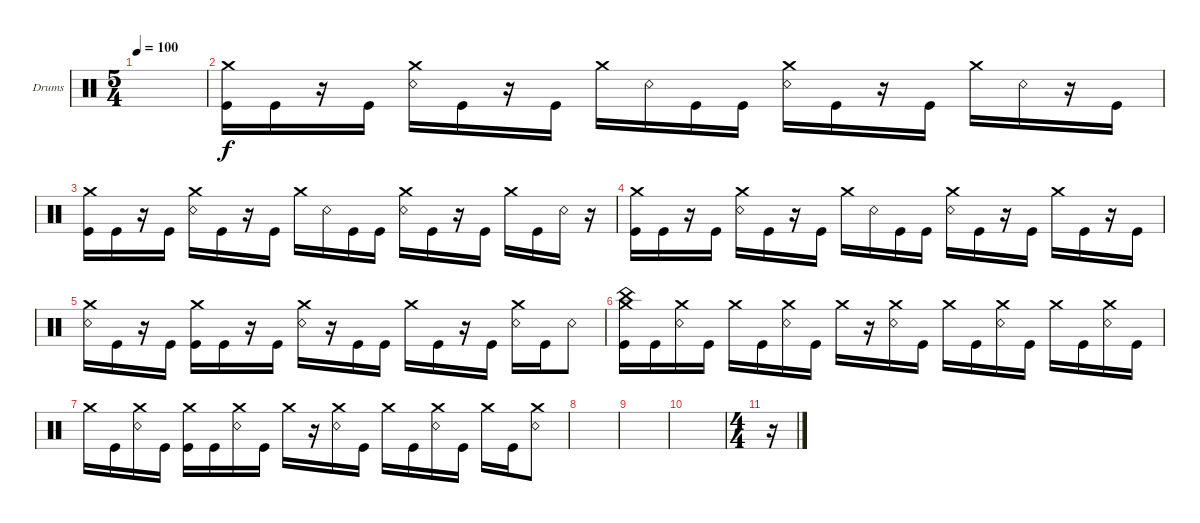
\defaultSystemsLayout 4
\bracketExtendMode groupsimilarinstruments
\firstSystemTrackNameOrientation horizontal
\otherSystemsTrackNameOrientation horizontal
\track ("Drumkit" "Drums") {instrument percussion}
\staff {score}
\articulation defaults
\ts (5 4)
\tempo 100
\clef neutral
\ks c
|
("Kick (hit)" "Crash medium (hit)").16 "Kick (hit)".16 r.16 "Kick (hit)".16 ("Snare (rim shot)" "Crash medium (hit)").16 "Kick (hit)".16 r.16 "Kick (hit)".16 "Crash medium (hit)".16 "Snare (rim shot)".16 "Kick (hit)".16 "Kick (hit)".16 ("Snare (rim shot)" "Crash medium (hit)").16 "Kick (hit)".16 r.16 "Kick (hit)".16 "Crash medium (hit)".16 "Snare (rim shot)".16 r.16 "Kick (hit)".16 |
("Kick (hit)" "Crash medium (hit)").16 "Kick (hit)".16 r.16 "Kick (hit)".16 ("Snare (rim shot)" "Crash medium (hit)").16 "Kick (hit)".16 r.16 "Kick (hit)".16 "Crash medium (hit)".16 "Snare (rim shot)".16 "Kick (hit)".16 "Kick (hit)".16 ("Snare (rim shot)" "Crash medium (hit)").16 "Kick (hit)".16 r.16 "Kick (hit)".16 "Crash medium (hit)".16 "Kick (hit)".16 "Snare (rim shot)".16 r.16 |
("Kick (hit)" "Crash medium (hit)").16 "Kick (hit)".16 r.16 "Kick (hit)".16 ("Snare (rim shot)" "Crash medium (hit)").16 "Kick (hit)".16 r.16 "Kick (hit)".16 "Crash medium (hit)".16 "Snare (rim shot)".16 "Kick (hit)".16 "Kick (hit)".16 ("Snare (rim shot)" "Crash medium (hit)").16 "Kick (hit)".16 r.16 "Kick (hit)".16 "Crash medium (hit)".16 "Kick (hit)".16 r.16 "Kick (hit)".16 |
("Crash medium (hit)" "Snare (rim shot)").16 "Kick (hit)".16 r.16 "Kick (hit)".16 ("Crash medium (hit)" "Kick (hit)").16 "Kick (hit)".16 r.16 "Kick (hit)".16 ("Crash medium (hit)" "Snare (rim shot)").16 r.16 "Kick (hit)".16 "Kick (hit)".16 "Crash medium (hit)".16 "Kick (hit)".16 r.16 "Kick (hit)".16 ("Crash medium (hit)" "Snare (rim shot)").16 "Kick (hit)".16 "Snare (rim shot)".8 |
("Kick (hit)" "Crash medium (hit)" "China (hit)").16 "Kick (hit)".16 ("Crash medium (hit)" "Snare (rim shot)").16 "Kick (hit)".16 "Crash medium (hit)".16 "Kick (hit)".16 ("Crash medium (hit)" "Snare (rim shot)").16 "Kick (hit)".16 "Crash medium (hit)".16 r.16 ("Crash medium (hit)" "Snare (rim shot)").16 "Kick (hit)".16 "Crash medium (hit)".16 "Kick (hit)".16 ("Crash medium (hit)" "Snare (rim shot)").16 "Kick (hit)".16 "Crash medium (hit)".16 "Kick (hit)".16 ("Crash medium (hit)" "Snare (rim shot)").16 "Kick (hit)".16 |
"Crash medium (hit)".16 "Kick (hit)".16 ("Crash medium (hit)" "Snare (rim shot)").16 "Kick (hit)".16 ("Crash medium (hit)" "Kick (hit)").16 "Kick (hit)".16 ("Crash medium (hit)" "Snare (rim shot)").16 "Kick (hit)".16 "Crash medium (hit)".16 r.16 ("Crash medium (hit)" "Snare (rim shot)").16 "Kick (hit)".16 "Crash medium (hit)".16 "Kick (hit)".16 ("Crash medium (hit)" "Snare (rim shot)").16 "Kick (hit)".16 "Crash medium (hit)".16 "Kick (hit)".16 ("Snare (rim shot)" "Crash medium (hit)").8 |
|
|
|
\ts (4 4)
r.16
